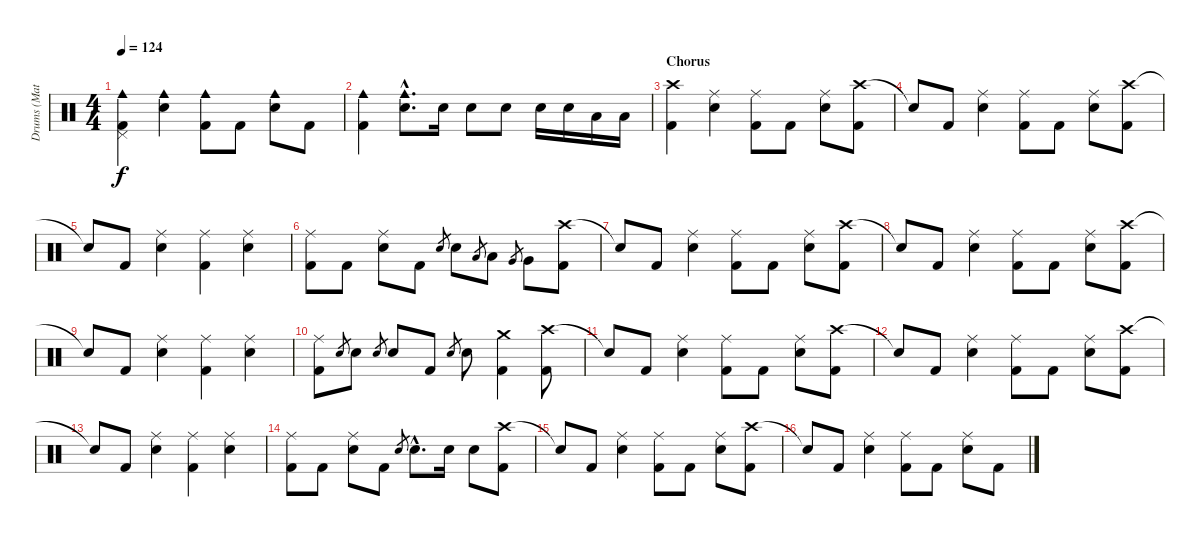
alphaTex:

\track ("Drums (Matt)" "Drums (Mat") {instrument percussion}
\staff {score}
\articulation defaults
\ts (4 4)
\tempo 124
\clef neutral
\ks c
("Cowbell medium (hit)" "Pedal Hi-Hat (hit)" "Kick (hit) 2").4{dy f} ("Cowbell medium (hit)" "Snare (hit) 2").4 ("Cowbell medium (hit)" "Kick (hit) 2").8 "Kick (hit) 2".8 ("Cowbell medium (hit)" "Snare (hit) 2").8 "Kick (hit) 2".8 |
("Cowbell medium (hit)" "Kick (hit) 2").4 ("Cowbell medium (hit)"{hac} "Snare (hit) 2"{hac}).8{d} "Snare (hit) 2".16 "Snare (hit) 2".8 "Snare (hit) 2".8 "Snare (hit) 2".16 "Snare (hit) 2".16 "Low Tom (hit)".16 "Low Tom (hit)".16 |
\section ("" "Chorus")
("Crash high (hit)" "Kick (hit) 2").4 ("Ride (middle)" "Snare (hit) 2").4 ("Ride (middle)" "Kick (hit) 2").8 "Kick (hit) 2".8 ("Ride (middle)" "Snare (hit) 2").8 ("Crash high (hit)" "Kick (hit) 2").8 |
"Snare (hit)"{t}.8 "Kick (hit) 2".8 ("Ride (middle)" "Snare (hit) 2").4 ("Ride (middle)" "Kick (hit) 2").8 "Kick (hit) 2".8 ("Ride (middle)" "Snare (hit) 2").8 ("Crash high (hit)" "Kick (hit) 2").8 |
"Snare (hit)"{t}.8 "Kick (hit) 2".8 ("Ride (middle)" "Snare (hit) 2").4 ("Ride (middle)" "Kick (hit) 2").4 ("Ride (middle)" "Snare (hit) 2").4 |
("Ride (middle)" "Kick (hit) 2").8 "Kick (hit) 2".8 ("Ride (middle)" "Snare (hit) 2").8 "Kick (hit) 2".8 "Snare (hit) 2".8{gr} "Snare (hit) 2".8 "Low Tom (hit)".8{gr} "Low Tom (hit)".8 "Very Low Tom (hit)".8{gr} "Very Low Tom (hit)".8 ("Crash high (hit)" "Kick (hit) 2").8 |
"Snare (hit)"{t}.8 "Kick (hit) 2".8 ("Ride (middle)" "Snare (hit) 2").4 ("Ride (middle)" "Kick (hit) 2").8 "Kick (hit) 2".8 ("Ride (middle)" "Snare (hit) 2").8 ("Crash high (hit)" "Kick (hit) 2").8 |
"Snare (hit)"{t}.8 "Kick (hit) 2".8 ("Ride (middle)" "Snare (hit) 2").4 ("Ride (middle)" "Kick (hit) 2").8 "Kick (hit) 2".8 ("Ride (middle)" "Snare (hit) 2").8 ("Crash high (hit)" "Kick (hit) 2").8 |
"Snare (hit)"{t}.8 "Kick (hit) 2".8 ("Ride (middle)" "Snare (hit) 2").4 ("Ride (middle)" "Kick (hit) 2").4 ("Ride (middle)" "Snare (hit) 2").4 |
("Ride (middle)" "Kick (hit) 2").8 "Snare (hit) 2".8{gr} "Snare (hit) 2".8 "Snare (hit) 2".8{gr} "Snare (hit) 2".8 "Kick (hit) 2".8 "Snare (hit) 2".8{gr} "Snare (hit) 2".8 ("Crash medium (hit)" "Kick (hit) 2").4 ("Crash high (hit)" "Kick (hit) 2").8 |
"Snare (hit)"{t}.8 "Kick (hit) 2".8 ("Ride (middle)" "Snare (hit) 2").4 ("Ride (middle)" "Kick (hit) 2").8 "Kick (hit) 2".8 ("Ride (middle)" "Snare (hit) 2").8 ("Crash high (hit)" "Kick (hit) 2").8 |
"Snare (hit)"{t}.8 "Kick (hit) 2".8 ("Ride (middle)" "Snare (hit) 2").4 ("Ride (middle)" "Kick (hit) 2").8 "Kick (hit) 2".8 ("Ride (middle)" "Snare (hit) 2").8 ("Crash high (hit)" "Kick (hit) 2").8 |
"Snare (hit)"{t}.8 "Kick (hit) 2".8 ("Ride (middle)" "Snare (hit) 2").4 ("Ride (middle)" "Kick (hit) 2").4 ("Ride (middle)" "Snare (hit) 2").4 |
("Ride (middle)" "Kick (hit) 2").8 "Kick (hit) 2".8 ("Ride (middle)" "Snare (hit) 2").8 "Kick (hit) 2".8 "Snare (hit) 2".8{gr} "Snare (hit) 2"{hac}.8{d} "Snare (hit) 2".16 "Snare (hit) 2".8 ("Crash high (hit)" "Kick (hit) 2").8 |
"Snare (hit)"{t}.8 "Kick (hit) 2".8 ("Ride (middle)" "Snare (hit) 2").4 ("Ride (middle)" "Kick (hit) 2").8 "Kick (hit) 2".8 ("Ride (middle)" "Snare (hit) 2").8 ("Crash high (hit)" "Kick (hit) 2").8 |
"Snare (hit)"{t}.8 "Kick (hit) 2".8 ("Ride (middle)" "Snare (hit) 2").4 ("Ride (middle)" "Kick (hit) 2").8 "Kick (hit) 2".8 ("Ride (middle)" "Snare (hit) 2").8 "Kick (hit) 2".8
